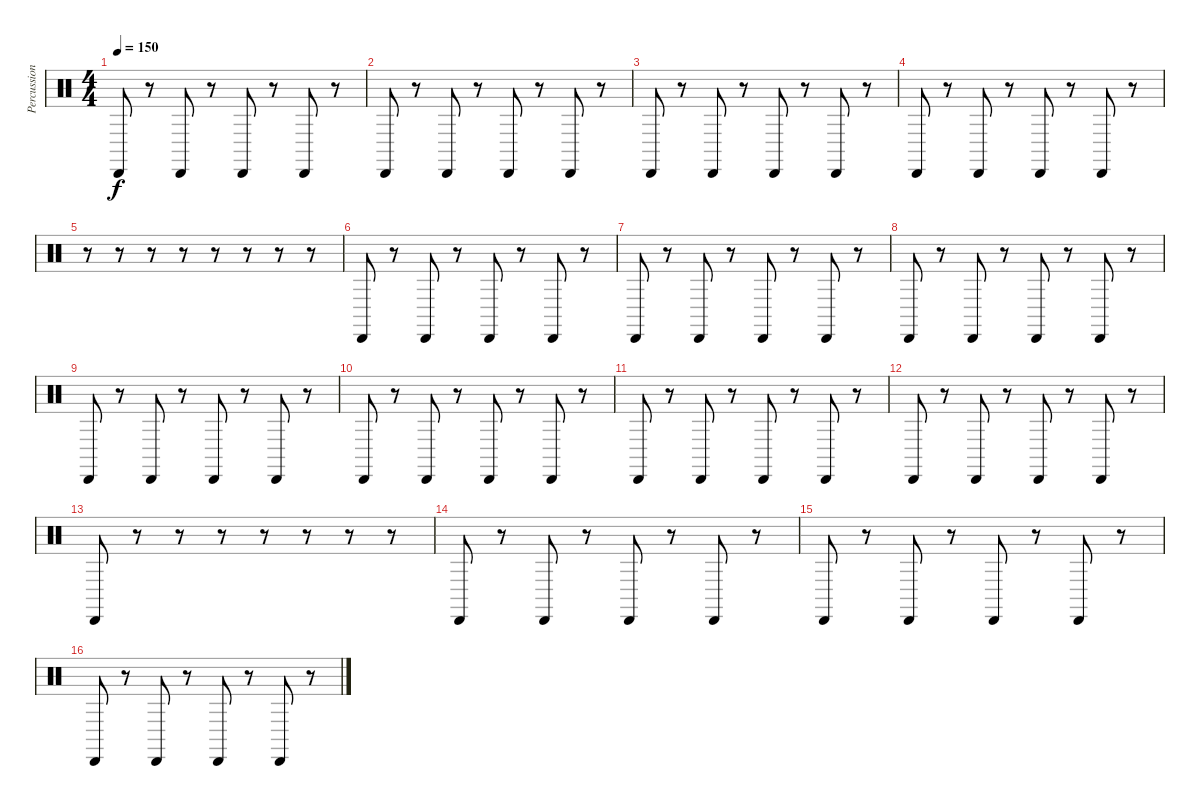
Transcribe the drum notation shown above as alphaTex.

\track ("Percussion1" "Percussion") {instrument percussion}
\staff {score}
\articulation defaults
\ts (4 4)
\tempo 150
\clef neutral
\ks aminor "Cabasa (hit)".8{dy f}
r.8 "Cabasa (hit)".8 r.8 "Cabasa (hit)".8 r.8 "Cabasa (hit)".8 r.8 |
"Cabasa (hit)".8 r.8 "Cabasa (hit)".8 r.8 "Cabasa (hit)".8 r.8 "Cabasa (hit)".8 r.8 |
"Cabasa (hit)".8 r.8 "Cabasa (hit)".8 r.8 "Cabasa (hit)".8 r.8 "Cabasa (hit)".8 r.8 |
"Cabasa (hit)".8 r.8 "Cabasa (hit)".8 r.8 "Cabasa (hit)".8 r.8 "Cabasa (hit)".8 r.8 |
r.8 r.8 r.8 r.8 r.8 r.8 r.8 r.8 |
"Cabasa (hit)".8 r.8 "Cabasa (hit)".8 r.8 "Cabasa (hit)".8 r.8 "Cabasa (hit)".8 r.8 |
"Cabasa (hit)".8 r.8 "Cabasa (hit)".8 r.8 "Cabasa (hit)".8 r.8 "Cabasa (hit)".8 r.8 |
"Cabasa (hit)".8 r.8 "Cabasa (hit)".8 r.8 "Cabasa (hit)".8 r.8 "Cabasa (hit)".8 r.8 |
"Cabasa (hit)".8 r.8 "Cabasa (hit)".8 r.8 "Cabasa (hit)".8 r.8 "Cabasa (hit)".8 r.8 |
"Cabasa (hit)".8 r.8 "Cabasa (hit)".8 r.8 "Cabasa (hit)".8 r.8 "Cabasa (hit)".8 r.8 |
"Cabasa (hit)".8 r.8 "Cabasa (hit)".8 r.8 "Cabasa (hit)".8 r.8 "Cabasa (hit)".8 r.8 |
"Cabasa (hit)".8 r.8 "Cabasa (hit)".8 r.8 "Cabasa (hit)".8 r.8 "Cabasa (hit)".8 r.8 |
"Cabasa (hit)".8 r.8 r.8 r.8 r.8 r.8 r.8 r.8 |
"Cabasa (hit)".8 r.8 "Cabasa (hit)".8 r.8 "Cabasa (hit)".8 r.8 "Cabasa (hit)".8 r.8 |
"Cabasa (hit)".8 r.8 "Cabasa (hit)".8 r.8 "Cabasa (hit)".8 r.8 "Cabasa (hit)".8 r.8 |
"Cabasa (hit)".8 r.8 "Cabasa (hit)".8 r.8 "Cabasa (hit)".8 r.8 "Cabasa (hit)".8 r.8
